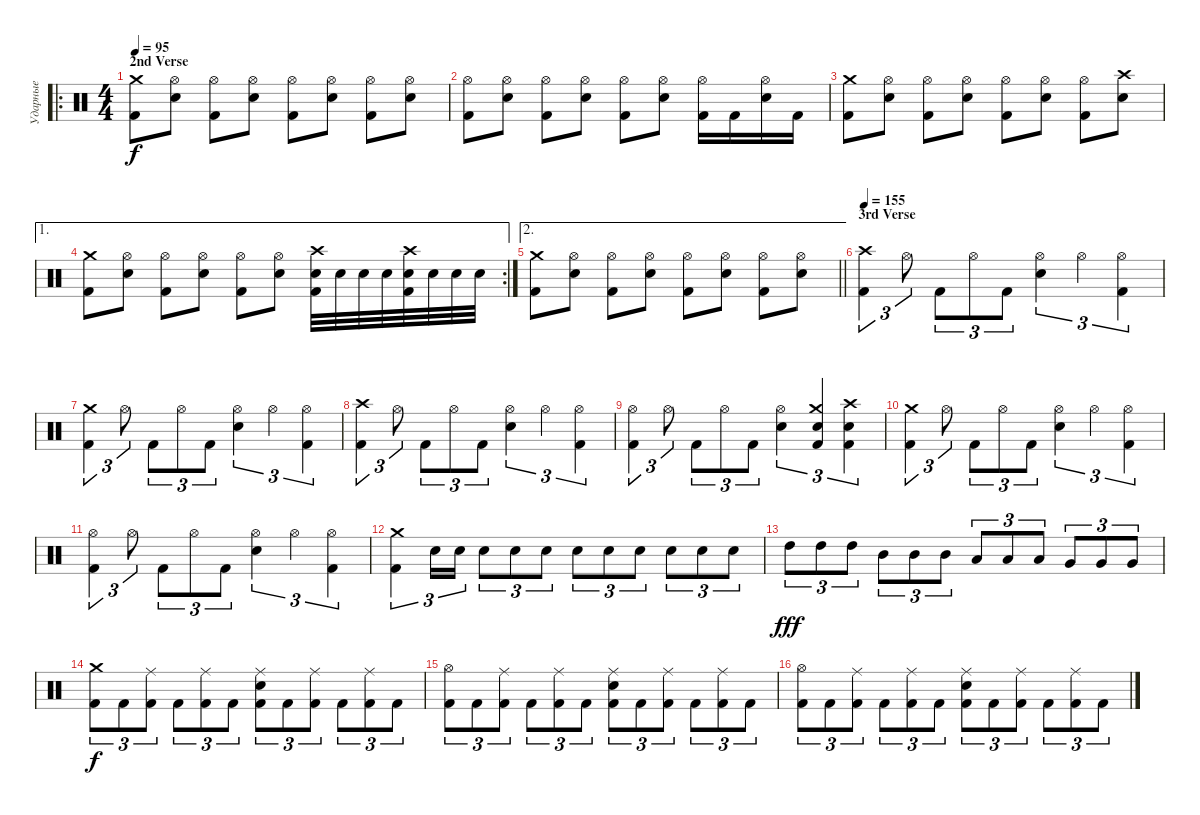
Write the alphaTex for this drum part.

\track ("Ударные" "Ударные") {instrument percussion}
\staff {score}
\articulation defaults
\ro
\ts (4 4)
\section ("" "2nd Verse")
\tempo 95
\clef neutral
\ks c
("Kick (hit) 2" "Crash medium (hit)").8{dy f} ("Electric Snare (hit)" "Hi-Hat (open)").8 ("Kick (hit) 2" "Hi-Hat (open)").8 ("Electric Snare (hit)" "Hi-Hat (open)").8 ("Kick (hit) 2" "Hi-Hat (open)").8 ("Electric Snare (hit)" "Hi-Hat (open)").8 ("Kick (hit) 2" "Hi-Hat (open)").8 ("Electric Snare (hit)" "Hi-Hat (open)").8 |
("Kick (hit) 2" "Hi-Hat (open)").8 ("Electric Snare (hit)" "Hi-Hat (open)").8 ("Kick (hit) 2" "Hi-Hat (open)").8 ("Electric Snare (hit)" "Hi-Hat (open)").8 ("Kick (hit) 2" "Hi-Hat (open)").8 ("Electric Snare (hit)" "Hi-Hat (open)").8 ("Kick (hit) 2" "Hi-Hat (open)").16 "Kick (hit) 2".16 ("Electric Snare (hit)" "Hi-Hat (open)").16 "Kick (hit) 2".16 |
("Kick (hit) 2" "Crash medium (hit)").8 ("Electric Snare (hit)" "Hi-Hat (open)").8 ("Kick (hit) 2" "Hi-Hat (open)").8 ("Electric Snare (hit)" "Hi-Hat (open)").8 ("Kick (hit) 2" "Hi-Hat (open)").8 ("Electric Snare (hit)" "Hi-Hat (open)").8 ("Kick (hit) 2" "Hi-Hat (open)").8 ("Electric Snare (hit)" "Crash high (hit)").8 |
\ae 1
\rc 2
("Kick (hit) 2" "Crash medium (hit)").8 ("Electric Snare (hit)" "Hi-Hat (open)").8 ("Kick (hit) 2" "Hi-Hat (open)").8 ("Electric Snare (hit)" "Hi-Hat (open)").8 ("Kick (hit) 2" "Hi-Hat (open)").8 ("Electric Snare (hit)" "Hi-Hat (open)").8 ("Kick (hit) 2" "Electric Snare (hit)" "Crash high (hit)").32 "Electric Snare (hit)".32 "Electric Snare (hit)".32 "Electric Snare (hit)".32 ("Kick (hit) 2" "Electric Snare (hit)" "Crash high (hit)").32 "Electric Snare (hit)".32 "Electric Snare (hit)".32 "Electric Snare (hit)".32 |
\ae 2
\barLineRight lightlight
("Kick (hit) 2" "Crash medium (hit)").8 ("Electric Snare (hit)" "Hi-Hat (open)").8 ("Kick (hit) 2" "Hi-Hat (open)").8 ("Electric Snare (hit)" "Hi-Hat (open)").8 ("Kick (hit) 2" "Hi-Hat (open)").8 ("Electric Snare (hit)" "Hi-Hat (open)").8 ("Kick (hit) 2" "Hi-Hat (open)").8 ("Electric Snare (hit)" "Hi-Hat (open)").8 |
\section ("" "3rd Verse")
\tempo 155
("Kick (hit) 2" "Crash high (hit)").4{tu (3 2)} "Hi-Hat (open)".8{tu (3 2)} "Kick (hit) 2".8{tu (3 2)} "Hi-Hat (open)".8{tu (3 2)} "Kick (hit) 2".8{tu (3 2)} ("Electric Snare (hit)" "Hi-Hat (open)").4{tu (3 2)} "Hi-Hat (open)".4{tu (3 2)} ("Kick (hit) 2" "Hi-Hat (open)").4{tu (3 2)} |
("Kick (hit) 2" "Crash medium (hit)").4{tu (3 2)} "Hi-Hat (open)".8{tu (3 2)} "Kick (hit) 2".8{tu (3 2)} "Hi-Hat (open)".8{tu (3 2)} "Kick (hit) 2".8{tu (3 2)} ("Electric Snare (hit)" "Hi-Hat (open)").4{tu (3 2)} "Hi-Hat (open)".4{tu (3 2)} ("Kick (hit) 2" "Hi-Hat (open)").4{tu (3 2)} |
("Kick (hit) 2" "Crash high (hit)").4{tu (3 2)} "Hi-Hat (open)".8{tu (3 2)} "Kick (hit) 2".8{tu (3 2)} "Hi-Hat (open)".8{tu (3 2)} "Kick (hit) 2".8{tu (3 2)} ("Electric Snare (hit)" "Hi-Hat (open)").4{tu (3 2)} "Hi-Hat (open)".4{tu (3 2)} ("Kick (hit) 2" "Hi-Hat (open)").4{tu (3 2)} |
("Kick (hit) 2" "Hi-Hat (open)").4{tu (3 2)} "Hi-Hat (open)".8{tu (3 2)} "Kick (hit) 2".8{tu (3 2)} "Hi-Hat (open)".8{tu (3 2)} "Kick (hit) 2".8{tu (3 2)} ("Electric Snare (hit)" "Hi-Hat (open)").4{tu (3 2)} ("Kick (hit) 2" "Electric Snare (hit)" "Crash medium (hit)").4{tu (3 2)} ("Kick (hit) 2" "Electric Snare (hit)" "Crash high (hit)").4{tu (3 2)} |
("Kick (hit) 2" "Crash medium (hit)").4{tu (3 2)} "Hi-Hat (open)".8{tu (3 2)} "Kick (hit) 2".8{tu (3 2)} "Hi-Hat (open)".8{tu (3 2)} "Kick (hit) 2".8{tu (3 2)} ("Electric Snare (hit)" "Hi-Hat (open)").4{tu (3 2)} "Hi-Hat (open)".4{tu (3 2)} ("Kick (hit) 2" "Hi-Hat (open)").4{tu (3 2)} |
("Kick (hit) 2" "Hi-Hat (open)").4{tu (3 2)} "Hi-Hat (open)".8{tu (3 2)} "Kick (hit) 2".8{tu (3 2)} "Hi-Hat (open)".8{tu (3 2)} "Kick (hit) 2".8{tu (3 2)} ("Electric Snare (hit)" "Hi-Hat (open)").4{tu (3 2)} "Hi-Hat (open)".4{tu (3 2)} ("Kick (hit) 2" "Hi-Hat (open)").4{tu (3 2)} |
("Kick (hit) 2" "Crash medium (hit)").4{tu (3 2)} "Electric Snare (hit)".16{tu (3 2)} "Electric Snare (hit)".16{tu (3 2)} "Electric Snare (hit)".8{tu (3 2)} "Electric Snare (hit)".8{tu (3 2)} "Electric Snare (hit)".8{tu (3 2)} "Electric Snare (hit)".8{tu (3 2)} "Electric Snare (hit)".8{tu (3 2)} "Electric Snare (hit)".8{tu (3 2)} "Electric Snare (hit)".8{tu (3 2)} "Electric Snare (hit)".8{tu (3 2)} "Electric Snare (hit)".8{tu (3 2)} |
"High Tom (hit)".8{tu (3 2) dy fff} "High Tom (hit)".8{tu (3 2)} "High Tom (hit)".8{tu (3 2)} "Mid Tom (hit)".8{tu (3 2)} "Mid Tom (hit)".8{tu (3 2)} "Mid Tom (hit)".8{tu (3 2)} "Low Tom (hit)".8{tu (3 2)} "Low Tom (hit)".8{tu (3 2)} "Low Tom (hit)".8{tu (3 2)} "Very Low Tom (hit)".8{tu (3 2)} "Very Low Tom (hit)".8{tu (3 2)} "Very Low Tom (hit)".8{tu (3 2)} |
("Kick (hit) 2" "Crash medium (hit)").8{tu (3 2) dy f} "Kick (hit) 2".8{tu (3 2)} ("Kick (hit) 2" "Ride (middle)").8{tu (3 2)} "Kick (hit) 2".8{tu (3 2)} ("Kick (hit) 2" "Ride (middle)").8{tu (3 2)} "Kick (hit) 2".8{tu (3 2)} ("Kick (hit) 2" "Electric Snare (hit)" "Ride (middle)").8{tu (3 2)} "Kick (hit) 2".8{tu (3 2)} ("Kick (hit) 2" "Ride (middle)").8{tu (3 2)} "Kick (hit) 2".8{tu (3 2)} ("Kick (hit) 2" "Ride (middle)").8{tu (3 2)} "Kick (hit) 2".8{tu (3 2)} |
("Kick (hit) 2" "Hi-Hat (open)").8{tu (3 2)} "Kick (hit) 2".8{tu (3 2)} ("Kick (hit) 2" "Ride (middle)").8{tu (3 2)} "Kick (hit) 2".8{tu (3 2)} ("Kick (hit) 2" "Ride (middle)").8{tu (3 2)} "Kick (hit) 2".8{tu (3 2)} ("Kick (hit) 2" "Electric Snare (hit)" "Ride (middle)").8{tu (3 2)} "Kick (hit) 2".8{tu (3 2)} ("Kick (hit) 2" "Ride (middle)").8{tu (3 2)} "Kick (hit) 2".8{tu (3 2)} ("Kick (hit) 2" "Ride (middle)").8{tu (3 2)} "Kick (hit) 2".8{tu (3 2)} |
("Kick (hit) 2" "Hi-Hat (open)").8{tu (3 2)} "Kick (hit) 2".8{tu (3 2)} ("Kick (hit) 2" "Ride (middle)").8{tu (3 2)} "Kick (hit) 2".8{tu (3 2)} ("Kick (hit) 2" "Ride (middle)").8{tu (3 2)} "Kick (hit) 2".8{tu (3 2)} ("Kick (hit) 2" "Electric Snare (hit)" "Ride (middle)").8{tu (3 2)} "Kick (hit) 2".8{tu (3 2)} ("Kick (hit) 2" "Ride (middle)").8{tu (3 2)} "Kick (hit) 2".8{tu (3 2)} ("Kick (hit) 2" "Ride (middle)").8{tu (3 2)} "Kick (hit) 2".8{tu (3 2)}
